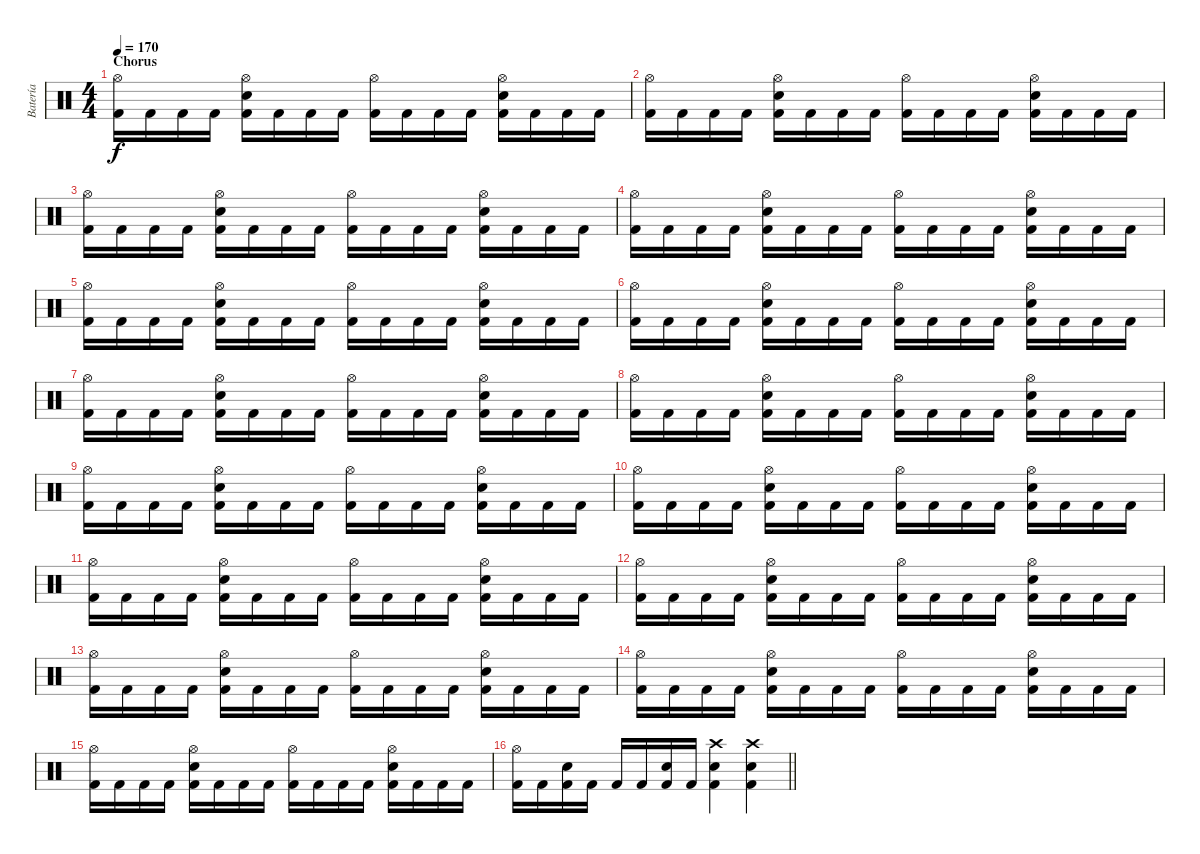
\track ("Batería" "Batería") {instrument percussion}
\staff {score}
\articulation defaults
\ts (4 4)
\section ("" "Chorus")
\tempo 170
\clef neutral
\ks c
("Hi-Hat (open)" "Kick (hit) 2").16{dy f} "Kick (hit) 2".16 "Kick (hit) 2".16 "Kick (hit) 2".16 ("Hi-Hat (open)" "Snare (hit) 2" "Kick (hit) 2").16 "Kick (hit) 2".16 "Kick (hit) 2".16 "Kick (hit) 2".16 ("Hi-Hat (open)" "Kick (hit) 2").16 "Kick (hit) 2".16 "Kick (hit) 2".16 "Kick (hit) 2".16 ("Hi-Hat (open)" "Snare (hit) 2" "Kick (hit) 2").16 "Kick (hit) 2".16 "Kick (hit) 2".16 "Kick (hit) 2".16 |
("Hi-Hat (open)" "Kick (hit) 2").16 "Kick (hit) 2".16 "Kick (hit) 2".16 "Kick (hit) 2".16 ("Hi-Hat (open)" "Snare (hit) 2" "Kick (hit) 2").16 "Kick (hit) 2".16 "Kick (hit) 2".16 "Kick (hit) 2".16 ("Hi-Hat (open)" "Kick (hit) 2").16 "Kick (hit) 2".16 "Kick (hit) 2".16 "Kick (hit) 2".16 ("Hi-Hat (open)" "Snare (hit) 2" "Kick (hit) 2").16 "Kick (hit) 2".16 "Kick (hit) 2".16 "Kick (hit) 2".16 |
("Hi-Hat (open)" "Kick (hit) 2").16 "Kick (hit) 2".16 "Kick (hit) 2".16 "Kick (hit) 2".16 ("Hi-Hat (open)" "Snare (hit) 2" "Kick (hit) 2").16 "Kick (hit) 2".16 "Kick (hit) 2".16 "Kick (hit) 2".16 ("Hi-Hat (open)" "Kick (hit) 2").16 "Kick (hit) 2".16 "Kick (hit) 2".16 "Kick (hit) 2".16 ("Hi-Hat (open)" "Snare (hit) 2" "Kick (hit) 2").16 "Kick (hit) 2".16 "Kick (hit) 2".16 "Kick (hit) 2".16 |
("Hi-Hat (open)" "Kick (hit) 2").16 "Kick (hit) 2".16 "Kick (hit) 2".16 "Kick (hit) 2".16 ("Hi-Hat (open)" "Snare (hit) 2" "Kick (hit) 2").16 "Kick (hit) 2".16 "Kick (hit) 2".16 "Kick (hit) 2".16 ("Hi-Hat (open)" "Kick (hit) 2").16 "Kick (hit) 2".16 "Kick (hit) 2".16 "Kick (hit) 2".16 ("Hi-Hat (open)" "Snare (hit) 2" "Kick (hit) 2").16 "Kick (hit) 2".16 "Kick (hit) 2".16 "Kick (hit) 2".16 |
("Hi-Hat (open)" "Kick (hit) 2").16 "Kick (hit) 2".16 "Kick (hit) 2".16 "Kick (hit) 2".16 ("Hi-Hat (open)" "Snare (hit) 2" "Kick (hit) 2").16 "Kick (hit) 2".16 "Kick (hit) 2".16 "Kick (hit) 2".16 ("Hi-Hat (open)" "Kick (hit) 2").16 "Kick (hit) 2".16 "Kick (hit) 2".16 "Kick (hit) 2".16 ("Hi-Hat (open)" "Snare (hit) 2" "Kick (hit) 2").16 "Kick (hit) 2".16 "Kick (hit) 2".16 "Kick (hit) 2".16 |
("Hi-Hat (open)" "Kick (hit) 2").16 "Kick (hit) 2".16 "Kick (hit) 2".16 "Kick (hit) 2".16 ("Hi-Hat (open)" "Snare (hit) 2" "Kick (hit) 2").16 "Kick (hit) 2".16 "Kick (hit) 2".16 "Kick (hit) 2".16 ("Hi-Hat (open)" "Kick (hit) 2").16 "Kick (hit) 2".16 "Kick (hit) 2".16 "Kick (hit) 2".16 ("Hi-Hat (open)" "Snare (hit) 2" "Kick (hit) 2").16 "Kick (hit) 2".16 "Kick (hit) 2".16 "Kick (hit) 2".16 |
("Hi-Hat (open)" "Kick (hit) 2").16 "Kick (hit) 2".16 "Kick (hit) 2".16 "Kick (hit) 2".16 ("Hi-Hat (open)" "Snare (hit) 2" "Kick (hit) 2").16 "Kick (hit) 2".16 "Kick (hit) 2".16 "Kick (hit) 2".16 ("Hi-Hat (open)" "Kick (hit) 2").16 "Kick (hit) 2".16 "Kick (hit) 2".16 "Kick (hit) 2".16 ("Hi-Hat (open)" "Snare (hit) 2" "Kick (hit) 2").16 "Kick (hit) 2".16 "Kick (hit) 2".16 "Kick (hit) 2".16 |
("Hi-Hat (open)" "Kick (hit) 2").16 "Kick (hit) 2".16 "Kick (hit) 2".16 "Kick (hit) 2".16 ("Hi-Hat (open)" "Snare (hit) 2" "Kick (hit) 2").16 "Kick (hit) 2".16 "Kick (hit) 2".16 "Kick (hit) 2".16 ("Hi-Hat (open)" "Kick (hit) 2").16 "Kick (hit) 2".16 "Kick (hit) 2".16 "Kick (hit) 2".16 ("Hi-Hat (open)" "Snare (hit) 2" "Kick (hit) 2").16 "Kick (hit) 2".16 "Kick (hit) 2".16 "Kick (hit) 2".16 |
("Hi-Hat (open)" "Kick (hit) 2").16 "Kick (hit) 2".16 "Kick (hit) 2".16 "Kick (hit) 2".16 ("Hi-Hat (open)" "Snare (hit) 2" "Kick (hit) 2").16 "Kick (hit) 2".16 "Kick (hit) 2".16 "Kick (hit) 2".16 ("Hi-Hat (open)" "Kick (hit) 2").16 "Kick (hit) 2".16 "Kick (hit) 2".16 "Kick (hit) 2".16 ("Hi-Hat (open)" "Snare (hit) 2" "Kick (hit) 2").16 "Kick (hit) 2".16 "Kick (hit) 2".16 "Kick (hit) 2".16 |
("Hi-Hat (open)" "Kick (hit) 2").16 "Kick (hit) 2".16 "Kick (hit) 2".16 "Kick (hit) 2".16 ("Hi-Hat (open)" "Snare (hit) 2" "Kick (hit) 2").16 "Kick (hit) 2".16 "Kick (hit) 2".16 "Kick (hit) 2".16 ("Hi-Hat (open)" "Kick (hit) 2").16 "Kick (hit) 2".16 "Kick (hit) 2".16 "Kick (hit) 2".16 ("Hi-Hat (open)" "Snare (hit) 2" "Kick (hit) 2").16 "Kick (hit) 2".16 "Kick (hit) 2".16 "Kick (hit) 2".16 |
("Hi-Hat (open)" "Kick (hit) 2").16 "Kick (hit) 2".16 "Kick (hit) 2".16 "Kick (hit) 2".16 ("Hi-Hat (open)" "Snare (hit) 2" "Kick (hit) 2").16 "Kick (hit) 2".16 "Kick (hit) 2".16 "Kick (hit) 2".16 ("Hi-Hat (open)" "Kick (hit) 2").16 "Kick (hit) 2".16 "Kick (hit) 2".16 "Kick (hit) 2".16 ("Hi-Hat (open)" "Snare (hit) 2" "Kick (hit) 2").16 "Kick (hit) 2".16 "Kick (hit) 2".16 "Kick (hit) 2".16 |
("Hi-Hat (open)" "Kick (hit) 2").16 "Kick (hit) 2".16 "Kick (hit) 2".16 "Kick (hit) 2".16 ("Hi-Hat (open)" "Snare (hit) 2" "Kick (hit) 2").16 "Kick (hit) 2".16 "Kick (hit) 2".16 "Kick (hit) 2".16 ("Hi-Hat (open)" "Kick (hit) 2").16 "Kick (hit) 2".16 "Kick (hit) 2".16 "Kick (hit) 2".16 ("Hi-Hat (open)" "Snare (hit) 2" "Kick (hit) 2").16 "Kick (hit) 2".16 "Kick (hit) 2".16 "Kick (hit) 2".16 |
("Hi-Hat (open)" "Kick (hit) 2").16 "Kick (hit) 2".16 "Kick (hit) 2".16 "Kick (hit) 2".16 ("Hi-Hat (open)" "Snare (hit) 2" "Kick (hit) 2").16 "Kick (hit) 2".16 "Kick (hit) 2".16 "Kick (hit) 2".16 ("Hi-Hat (open)" "Kick (hit) 2").16 "Kick (hit) 2".16 "Kick (hit) 2".16 "Kick (hit) 2".16 ("Hi-Hat (open)" "Snare (hit) 2" "Kick (hit) 2").16 "Kick (hit) 2".16 "Kick (hit) 2".16 "Kick (hit) 2".16 |
("Hi-Hat (open)" "Kick (hit) 2").16 "Kick (hit) 2".16 "Kick (hit) 2".16 "Kick (hit) 2".16 ("Hi-Hat (open)" "Snare (hit) 2" "Kick (hit) 2").16 "Kick (hit) 2".16 "Kick (hit) 2".16 "Kick (hit) 2".16 ("Hi-Hat (open)" "Kick (hit) 2").16 "Kick (hit) 2".16 "Kick (hit) 2".16 "Kick (hit) 2".16 ("Hi-Hat (open)" "Snare (hit) 2" "Kick (hit) 2").16 "Kick (hit) 2".16 "Kick (hit) 2".16 "Kick (hit) 2".16 |
("Hi-Hat (open)" "Kick (hit) 2").16 "Kick (hit) 2".16 "Kick (hit) 2".16 "Kick (hit) 2".16 ("Hi-Hat (open)" "Snare (hit) 2" "Kick (hit) 2").16 "Kick (hit) 2".16 "Kick (hit) 2".16 "Kick (hit) 2".16 ("Hi-Hat (open)" "Kick (hit) 2").16 "Kick (hit) 2".16 "Kick (hit) 2".16 "Kick (hit) 2".16 ("Hi-Hat (open)" "Snare (hit) 2" "Kick (hit) 2").16 "Kick (hit) 2".16 "Kick (hit) 2".16 "Kick (hit) 2".16 |
\barLineRight lightlight
("Hi-Hat (open)" "Kick (hit) 2").16 "Kick (hit) 2".16 ("Snare (hit) 2" "Kick (hit) 2").16 "Kick (hit) 2".16 "Kick (hit) 2".16 "Kick (hit) 2".16 ("Snare (hit) 2" "Kick (hit) 2").16 "Kick (hit) 2".16 ("Crash high (hit)" "Snare (hit) 2" "Kick (hit) 2").4 ("Crash high (hit)" "Snare (hit) 2" "Kick (hit) 2").4
